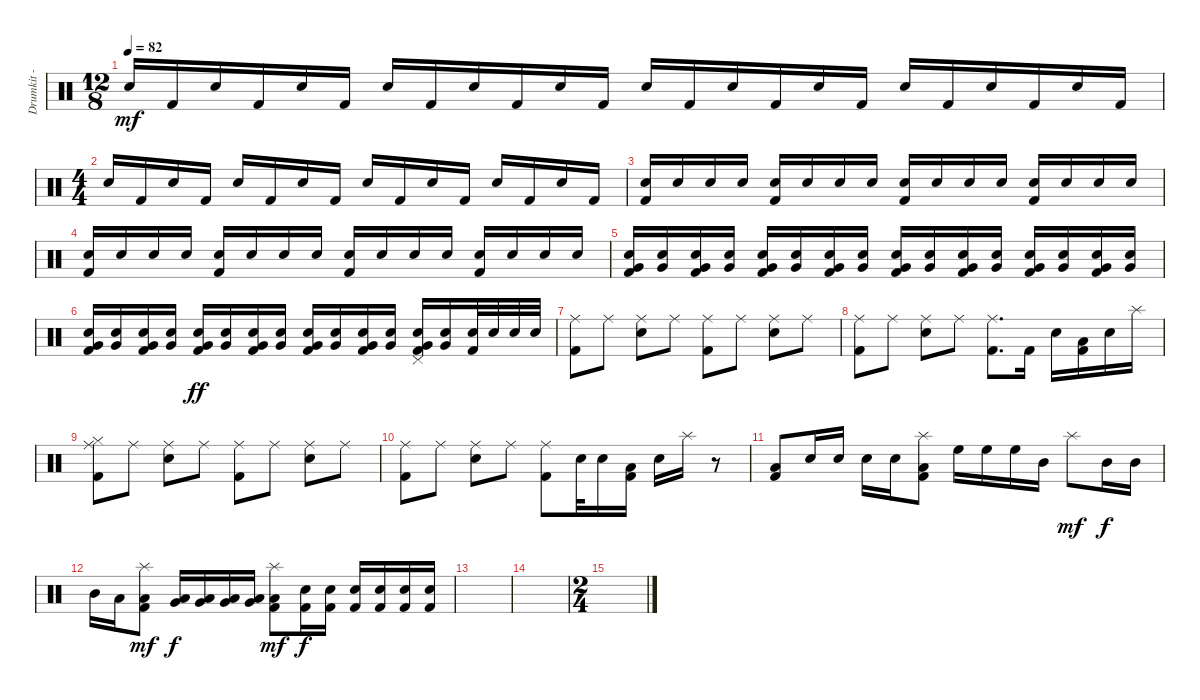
\track ("Drumkit - Dom" "Drumkit - ") {instrument percussion}
\staff {score}
\articulation defaults
\ts (12 8)
\tempo 82
\clef neutral
\ks c "Snare (hit) 2".16{dy mf} "Kick (hit) 2".16 "Snare (hit) 2".16 "Kick (hit) 2".16 "Snare (hit) 2".16 "Kick (hit) 2".16 "Snare (hit) 2".16 "Kick (hit) 2".16 "Snare (hit) 2".16 "Kick (hit) 2".16 "Snare (hit) 2".16 "Kick (hit) 2".16 "Snare (hit) 2".16 "Kick (hit) 2".16 "Snare (hit) 2".16 "Kick (hit) 2".16 "Snare (hit) 2".16 "Kick (hit) 2".16 "Snare (hit) 2".16 "Kick (hit) 2".16 "Snare (hit) 2".16 "Kick (hit) 2".16 "Snare (hit) 2".16 "Kick (hit) 2".16
|
\ts (4 4)
"Snare (hit) 2".16 "Kick (hit) 2".16 "Snare (hit) 2".16 "Kick (hit) 2".16 "Snare (hit) 2".16 "Kick (hit) 2".16 "Snare (hit) 2".16 "Kick (hit) 2".16 "Snare (hit) 2".16 "Kick (hit) 2".16 "Snare (hit) 2".16 "Kick (hit) 2".16 "Snare (hit) 2".16 "Kick (hit) 2".16 "Snare (hit) 2".16 "Kick (hit) 2".16 |
("Snare (hit) 2" "Kick (hit) 2").16 "Snare (hit) 2".16 "Snare (hit) 2".16 "Snare (hit) 2".16 ("Snare (hit) 2" "Kick (hit) 2").16 "Snare (hit) 2".16 "Snare (hit) 2".16 "Snare (hit) 2".16 ("Snare (hit) 2" "Kick (hit) 2").16 "Snare (hit) 2".16 "Snare (hit) 2".16 "Snare (hit) 2".16 ("Snare (hit) 2" "Kick (hit) 2").16 "Snare (hit) 2".16 "Snare (hit) 2".16 "Snare (hit) 2".16 |
("Snare (hit) 2" "Kick (hit) 2").16 "Snare (hit) 2".16 "Snare (hit) 2".16 "Snare (hit) 2".16 ("Snare (hit) 2" "Kick (hit) 2").16 "Snare (hit) 2".16 "Snare (hit) 2".16 "Snare (hit) 2".16 ("Snare (hit) 2" "Kick (hit) 2").16 "Snare (hit) 2".16 "Snare (hit) 2".16 "Snare (hit) 2".16 ("Snare (hit) 2" "Kick (hit) 2").16 "Snare (hit) 2".16 "Snare (hit) 2".16 "Snare (hit) 2".16 |
("Snare (hit) 2" "Kick (hit) 2" "Very Low Tom (hit)").16 ("Snare (hit) 2" "Very Low Tom (hit)").16 ("Snare (hit) 2" "Kick (hit) 2" "Very Low Tom (hit)").16 ("Snare (hit) 2" "Very Low Tom (hit)").16 ("Snare (hit) 2" "Kick (hit) 2" "Very Low Tom (hit)").16 ("Snare (hit) 2" "Very Low Tom (hit)").16 ("Snare (hit) 2" "Kick (hit) 2" "Very Low Tom (hit)").16 ("Snare (hit) 2" "Very Low Tom (hit)").16 ("Snare (hit) 2" "Kick (hit) 2" "Very Low Tom (hit)").16 ("Snare (hit) 2" "Very Low Tom (hit)").16 ("Snare (hit) 2" "Kick (hit) 2" "Very Low Tom (hit)").16 ("Snare (hit) 2" "Very Low Tom (hit)").16 ("Snare (hit) 2" "Kick (hit) 2" "Very Low Tom (hit)").16 ("Snare (hit) 2" "Very Low Tom (hit)").16 ("Snare (hit) 2" "Kick (hit) 2" "Very Low Tom (hit)").16 ("Snare (hit) 2" "Very Low Tom (hit)").16 |
("Snare (hit) 2" "Kick (hit) 2" "Very Low Tom (hit)").16 ("Snare (hit) 2" "Very Low Tom (hit)").16 ("Snare (hit) 2" "Kick (hit) 2" "Very Low Tom (hit)").16 ("Snare (hit) 2" "Very Low Tom (hit)").16 ("Snare (hit) 2" "Kick (hit) 2" "Very Low Tom (hit)").16{dy ff} ("Snare (hit) 2" "Very Low Tom (hit)").16 ("Snare (hit) 2" "Kick (hit) 2" "Very Low Tom (hit)").16 ("Snare (hit) 2" "Very Low Tom (hit)").16 ("Snare (hit) 2" "Kick (hit) 2" "Very Low Tom (hit)").16 ("Snare (hit) 2" "Very Low Tom (hit)").16 ("Snare (hit) 2" "Kick (hit) 2" "Very Low Tom (hit)").16 ("Snare (hit) 2" "Very Low Tom (hit)").16 ("Snare (hit) 2" "Kick (hit) 2" "Very Low Tom (hit)" "Pedal Hi-Hat (hit)").16 ("Snare (hit) 2" "Very Low Tom (hit)").16 ("Snare (hit) 2" "Kick (hit) 2").32 "Snare (hit) 2".32 "Snare (hit) 2".32 "Snare (hit) 2".32 |
("Ride (middle)" "Kick (hit) 2").8 "Ride (middle)".8 ("Ride (middle)" "Snare (hit) 2").8 "Ride (middle)".8 ("Ride (middle)" "Kick (hit) 2").8 "Ride (middle)".8 ("Ride (middle)" "Snare (hit) 2").8 "Ride (middle)".8 |
("Ride (middle)" "Kick (hit) 2").8 "Ride (middle)".8 ("Ride (middle)" "Snare (hit) 2").8 "Ride (middle)".8 ("Ride (middle)" "Kick (hit) 2").8{d} "Kick (hit) 2".16 "Snare (hit) 2".16 ("Kick (hit) 2" "Low Floor Tom (hit)").16 "Snare (hit) 2".16 "Splash (hit)".16 |
("Ride (middle)" "Kick (hit) 2" "Hi-Hat (closed)").8 "Ride (middle)".8 ("Ride (middle)" "Snare (hit) 2").8 "Ride (middle)".8 ("Ride (middle)" "Kick (hit) 2").8 "Ride (middle)".8 ("Ride (middle)" "Snare (hit) 2").8 "Ride (middle)".8 |
("Ride (middle)" "Kick (hit) 2").8 "Ride (middle)".8 ("Ride (middle)" "Snare (hit) 2").8 "Ride (middle)".8 ("Ride (middle)" "Kick (hit) 2").8 "Snare (hit) 2".32 "Snare (hit) 2".16 ("Kick (hit) 2" "Low Floor Tom (hit)").16 "Snare (hit) 2".16 "Splash (hit)".16 r.8 |
("Kick (hit) 2" "Low Floor Tom (hit)").8 "Snare (hit) 2".16 "Snare (hit) 2".16 "Snare (hit) 2".16 "Snare (hit) 2".16 ("Kick (hit) 2" "Low Floor Tom (hit)" "Splash (hit)").8 "High Floor Tom (hit)".16 "High Floor Tom (hit)".16 "High Floor Tom (hit)".16 "Mid Tom (hit)".16 "Splash (hit)".8{dy mf} "Mid Tom (hit)".16{dy f} "Mid Tom (hit)".16 |
"Mid Tom (hit)".16 "Low Tom (hit)".16 ("Splash (hit)" "Kick (hit) 2" "Low Floor Tom (hit)").8{dy mf} ("Very Low Tom (hit)" "Low Floor Tom (hit)").16{dy f} ("Very Low Tom (hit)" "Low Floor Tom (hit)").16 ("Very Low Tom (hit)" "Low Floor Tom (hit)").16 ("Very Low Tom (hit)" "Low Floor Tom (hit)").16 ("Splash (hit)" "Low Floor Tom (hit)" "Kick (hit) 2").8{dy mf} ("Snare (hit) 2" "Kick (hit) 2").16{dy f} ("Snare (hit) 2" "Kick (hit) 2").16 ("Snare (hit) 2" "Kick (hit) 2").16 ("Snare (hit) 2" "Kick (hit) 2").16 ("Snare (hit) 2" "Kick (hit) 2").16 ("Snare (hit) 2" "Kick (hit) 2").16 |
|
|
\ts (2 4)
